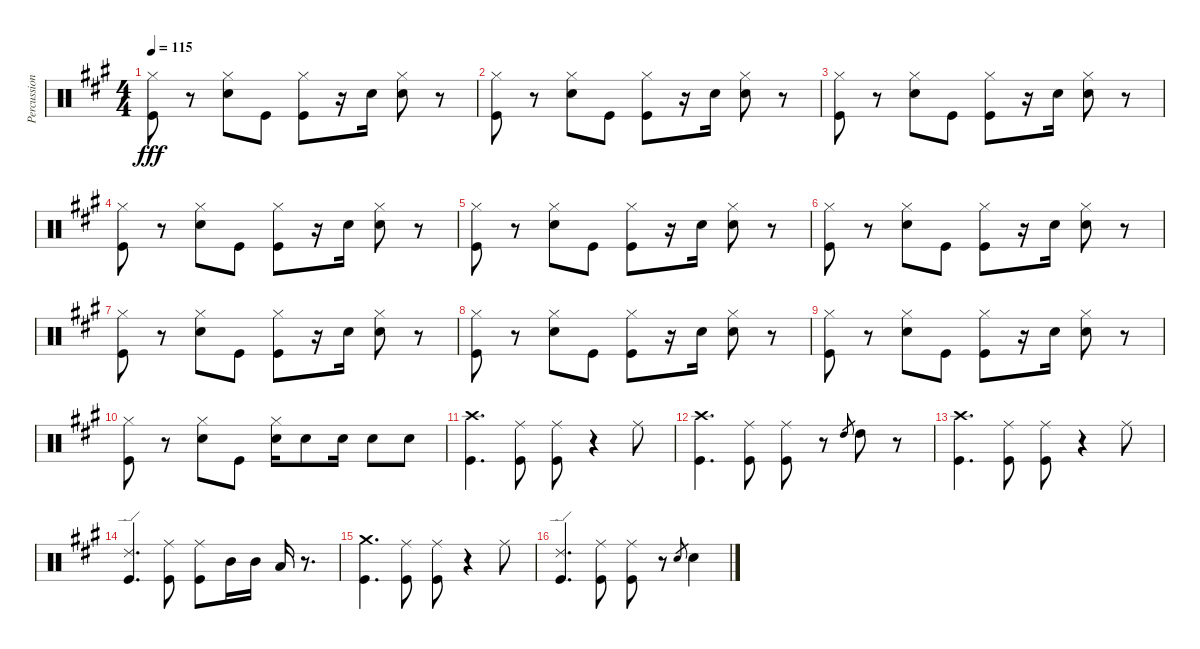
\track ("Percussion" "Percussion") {instrument percussion}
\staff {score}
\articulation defaults
\ts (4 4)
\tempo 115
\clef neutral
\ks a
("Kick (hit)" "Hi-Hat (closed)").8{dy fff} r.8 ("Electric Snare (hit)" "Hi-Hat (closed)").8 "Kick (hit)".8 ("Kick (hit)" "Hi-Hat (closed)").8 r.16 "Electric Snare (hit)".16 ("Electric Snare (hit)" "Hi-Hat (closed)").8 r.8 |
("Kick (hit)" "Hi-Hat (closed)").8 r.8 ("Electric Snare (hit)" "Hi-Hat (closed)").8 "Kick (hit)".8 ("Kick (hit)" "Hi-Hat (closed)").8 r.16 "Electric Snare (hit)".16 ("Electric Snare (hit)" "Hi-Hat (closed)").8 r.8 |
("Kick (hit)" "Hi-Hat (closed)").8 r.8 ("Electric Snare (hit)" "Hi-Hat (closed)").8 "Kick (hit)".8 ("Kick (hit)" "Hi-Hat (closed)").8 r.16 "Electric Snare (hit)".16 ("Electric Snare (hit)" "Hi-Hat (closed)").8 r.8 |
("Kick (hit)" "Hi-Hat (closed)").8 r.8 ("Electric Snare (hit)" "Hi-Hat (closed)").8 "Kick (hit)".8 ("Kick (hit)" "Hi-Hat (closed)").8 r.16 "Electric Snare (hit)".16 ("Electric Snare (hit)" "Hi-Hat (closed)").8 r.8 |
("Kick (hit)" "Hi-Hat (closed)").8 r.8 ("Electric Snare (hit)" "Hi-Hat (closed)").8 "Kick (hit)".8 ("Kick (hit)" "Hi-Hat (closed)").8 r.16 "Electric Snare (hit)".16 ("Electric Snare (hit)" "Hi-Hat (closed)").8 r.8 |
("Kick (hit)" "Hi-Hat (closed)").8 r.8 ("Electric Snare (hit)" "Hi-Hat (closed)").8 "Kick (hit)".8 ("Kick (hit)" "Hi-Hat (closed)").8 r.16 "Electric Snare (hit)".16 ("Electric Snare (hit)" "Hi-Hat (closed)").8 r.8 |
("Kick (hit)" "Hi-Hat (closed)").8 r.8 ("Electric Snare (hit)" "Hi-Hat (closed)").8 "Kick (hit)".8 ("Kick (hit)" "Hi-Hat (closed)").8 r.16 "Electric Snare (hit)".16 ("Electric Snare (hit)" "Hi-Hat (closed)").8 r.8 |
("Kick (hit)" "Hi-Hat (closed)").8 r.8 ("Electric Snare (hit)" "Hi-Hat (closed)").8 "Kick (hit)".8 ("Kick (hit)" "Hi-Hat (closed)").8 r.16 "Electric Snare (hit)".16 ("Electric Snare (hit)" "Hi-Hat (closed)").8 r.8 |
("Kick (hit)" "Hi-Hat (closed)").8 r.8 ("Electric Snare (hit)" "Hi-Hat (closed)").8 "Kick (hit)".8 ("Kick (hit)" "Hi-Hat (closed)").8 r.16 "Electric Snare (hit)".16 ("Electric Snare (hit)" "Hi-Hat (closed)").8 r.8 |
("Kick (hit)" "Hi-Hat (closed)").8 r.8 ("Electric Snare (hit)" "Hi-Hat (closed)").8 "Kick (hit)".8 ("Electric Snare (hit)" "Hi-Hat (closed)").16 "Electric Snare (hit)".8 "Electric Snare (hit)".16 "Electric Snare (hit)".8 "Electric Snare (hit)".8 |
("Crash high (hit)" "Kick (hit)").4{d} ("Ride (middle)" "Kick (hit)").8 ("Ride (middle)" "Kick (hit)").8 r.4 "Ride (middle)".8 |
("Crash high (hit)" "Kick (hit)").4{d} ("Ride (middle)" "Kick (hit)").8 ("Ride (middle)" "Kick (hit)").8 r.8 "High Tom (hit)".8{gr} "High Tom (hit)".8 r.8 |
("Crash high (hit)" "Kick (hit)").4{d} ("Ride (middle)" "Kick (hit)").8 ("Ride (middle)" "Kick (hit)").8 r.4 "Ride (middle)".8 |
("Ride (edge) 2" "Kick (hit)").4{d} ("Ride (middle)" "Kick (hit)").8 ("Ride (middle)" "Kick (hit)").8 "Mid Tom (hit)".16 "Mid Tom (hit)".16 "Low Tom (hit)".16 r.8{d} |
("Crash medium (hit)" "Kick (hit)").4{d} ("Ride (middle)" "Kick (hit)").8 ("Ride (middle)" "Kick (hit)").8 r.4 "Ride (middle)".8 |
("Ride (edge) 2" "Kick (hit)").4{d} ("Ride (middle)" "Kick (hit)").8 ("Ride (middle)" "Kick (hit)").8 r.8 "Electric Snare (hit)".8{gr} "Electric Snare (hit)".4
